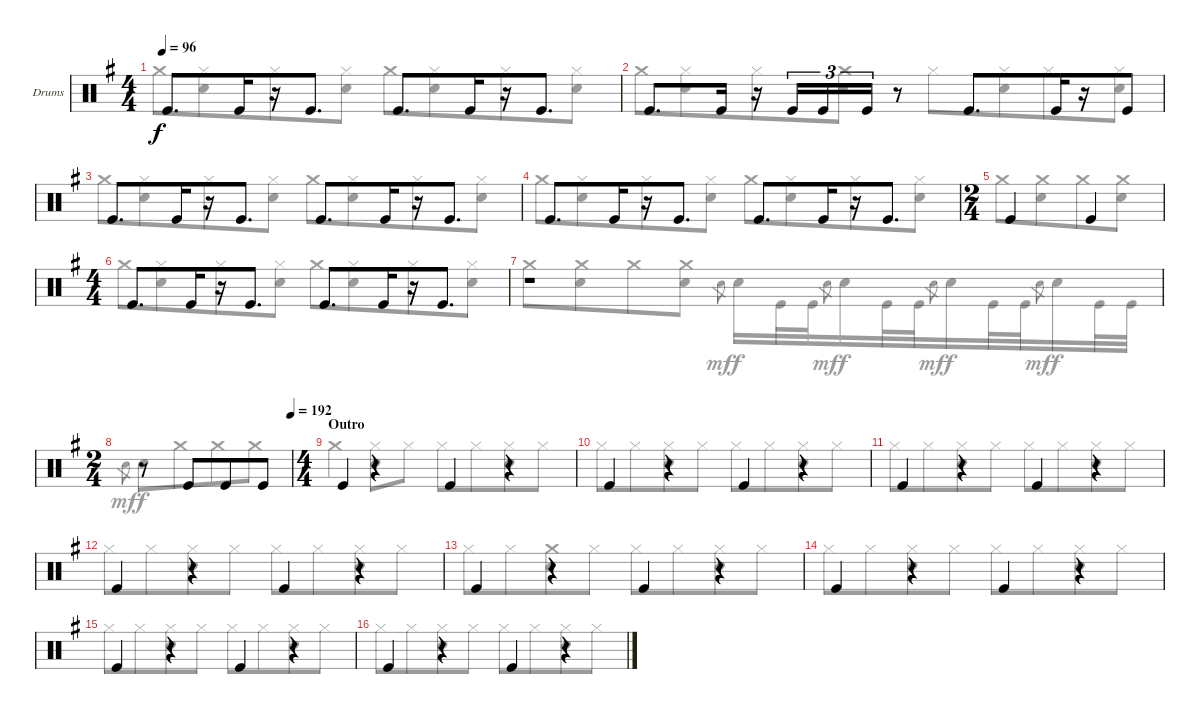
\bracketExtendMode groupsimilarinstruments
\firstSystemTrackNameOrientation horizontal
\otherSystemsTrackNameOrientation horizontal
\track ("Drumkit" "Drums") {instrument percussion}
\staff {score}
\articulation defaults
\voice
\ts (4 4)
\beaming (8 4 4)
\tempo 96
\clef neutral
\scale
1.07314
\ks g "Kick (hit)".8{d dy f} "Kick (hit)".16
r.16 "Kick (hit)".8{d} "Kick (hit)".8{d} "Kick (hit)".16 r.16 "Kick (hit)".8{d} |
\scale
0.92686 "Kick (hit)".8{d} "Kick (hit)".16 r.16 "Kick (hit)".16{tu (3 2)} "Kick (hit)".16{tu (3 2)} "Kick (hit)".16{tu (3 2)} r.8 "Kick (hit)".8{d} "Kick (hit)".16 r.16 "Kick (hit)".8 |
\scale
1.04288 "Kick (hit)".8{d} "Kick (hit)".16 r.16 "Kick (hit)".8{d} "Kick (hit)".8{d} "Kick (hit)".16 r.16 "Kick (hit)".8{d} |
\scale
0.957125 "Kick (hit)".8{d} "Kick (hit)".16 r.16 "Kick (hit)".8{d} "Kick (hit)".8{d} "Kick (hit)".16 r.16 "Kick (hit)".8{d} |
\ts (2 4)
\beaming (8 4 4)
\scale
1.07314 "Kick (hit)".4 "Kick (hit)".4 |
\ts (4 4)
\beaming (8 4 4)
\scale
0.92686 "Kick (hit)".8{d} "Kick (hit)".16 r.16 "Kick (hit)".8{d} "Kick (hit)".8{d} "Kick (hit)".16 r.16 "Kick (hit)".8{d} |
\scale
1.04288 r.1 |
\ts (2 4)
\beaming (8 4 4)
\tempo (192 1)
\scale
0.957125 r.8 "Kick (hit)".8 "Kick (hit)".8 "Kick (hit)".8 |
\ts (4 4)
\beaming (8 4 4)
\section ("" "Outro")
\scale
1.07314 "Kick (hit)".4 r.4 "Kick (hit)".4 r.4 |
\scale
0.92686 "Kick (hit)".4 r.4 "Kick (hit)".4 r.4 |
\scale
1.04288 "Kick (hit)".4 r.4 "Kick (hit)".4 r.4 |
\scale
0.957125 "Kick (hit)".4 r.4 "Kick (hit)".4 r.4 |
\scale
1.04288 "Kick (hit)".4 r.4 "Kick (hit)".4 r.4 |
\scale
0.957125 "Kick (hit)".4 r.4 "Kick (hit)".4 r.4 |
\scale
1.04288 "Kick (hit)".4 r.4 "Kick (hit)".4 r.4 |
\scale
0.957125 "Kick (hit)".4 r.4 "Kick (hit)".4 r.4
\voice
\clef neutral
\ottava regular
\simile none
\scale
1.07314
\ks g "Crash medium (hit)".8{dy f}
("Hi-Hat (closed)" "Snare (hit) 2").8 "Hi-Hat (closed)".8 ("Hi-Hat (closed)" "Snare (hit) 2").8 "Crash medium (hit)".8 ("Hi-Hat (closed)" "Snare (hit) 2").8 "Hi-Hat (closed)".8 ("Hi-Hat (closed)" "Snare (hit) 2").8 |
\scale
0.92686 "Crash medium (hit)".8 ("Hi-Hat (closed)" "Snare (hit) 2").8 "Hi-Hat (closed)".8 ("Crash medium (hit)" "Snare (hit) 2").8 "Hi-Hat (closed)".8 ("Hi-Hat (closed)" "Snare (hit) 2").8 "Hi-Hat (closed)".8 ("Hi-Hat (closed)" "Snare (hit) 2").8 |
\scale
1.04288 "Crash medium (hit)".8 ("Hi-Hat (closed)" "Snare (hit) 2").8 "Hi-Hat (closed)".8 ("Hi-Hat (closed)" "Snare (hit) 2").8 "Crash medium (hit)".8 ("Hi-Hat (closed)" "Snare (hit) 2").8 "Hi-Hat (closed)".8 ("Hi-Hat (closed)" "Snare (hit) 2").8 |
\scale
0.957125 "Crash medium (hit)".8 ("Hi-Hat (closed)" "Snare (hit) 2").8 "Hi-Hat (closed)".8 ("Hi-Hat (closed)" "Snare (hit) 2").8 "Crash medium (hit)".8 ("Hi-Hat (closed)" "Snare (hit) 2").8 "Hi-Hat (closed)".8 ("Hi-Hat (closed)" "Snare (hit) 2").8 |
\scale
1.07314 "Crash medium (hit)".8 ("Crash medium (hit)" "Snare (hit) 2").8 "Crash medium (hit)".8 ("Crash medium (hit)" "Snare (hit) 2").8 |
\scale
0.92686 "Crash medium (hit)".8 ("Hi-Hat (closed)" "Snare (hit) 2").8 "Hi-Hat (closed)".8 ("Hi-Hat (closed)" "Snare (hit) 2").8 "Crash medium (hit)".8 ("Hi-Hat (closed)" "Snare (hit) 2").8 "Hi-Hat (closed)".8 ("Hi-Hat (closed)" "Snare (hit) 2").8 |
\scale
1.04288 "Crash medium (hit)".8 ("Crash medium (hit)" "Snare (hit) 2").8 "Crash medium (hit)".8 ("Crash medium (hit)" "Snare (hit) 2").8 "Snare (hit) 2".8{gr dy mf} "Snare (hit) 2".16{dy f} "Kick (hit)".32 "Kick (hit)".32 "Snare (hit) 2".8{gr dy mf} "Snare (hit) 2".16{dy f} "Kick (hit)".32 "Kick (hit)".32 "Snare (hit) 2".8{gr dy mf} "Snare (hit) 2".16{dy f} "Kick (hit)".32 "Kick (hit)".32 "Snare (hit) 2".8{gr dy mf} "Snare (hit) 2".16{dy f} "Kick (hit)".32 "Kick (hit)".32 |
\scale
0.957125 "Snare (hit) 2".8{gr dy mf} "Snare (hit) 2".8{dy f} "Crash medium (hit)".8 "Crash medium (hit)".8 "Crash medium (hit)".8 |
\scale
1.07314 "Crash medium (hit)".4 ("Hi-Hat (closed)" "Snare (hit) 2").8 "Hi-Hat (closed)".8 "Hi-Hat (closed)".8 "Hi-Hat (closed)".8 ("Hi-Hat (closed)" "Snare (hit) 2").8 "Hi-Hat (closed)".8 |
\scale
0.92686 "Hi-Hat (closed)".8 "Hi-Hat (closed)".8 ("Hi-Hat (closed)" "Snare (hit) 2").8 "Hi-Hat (closed)".8 "Hi-Hat (closed)".8 "Hi-Hat (closed)".8 ("Hi-Hat (closed)" "Snare (hit) 2").8 "Hi-Hat (closed)".8 |
\scale
1.04288 "Hi-Hat (closed)".8 "Hi-Hat (closed)".8 ("Hi-Hat (closed)" "Snare (hit) 2").8 "Hi-Hat (closed)".8 "Hi-Hat (closed)".8 "Hi-Hat (closed)".8 ("Hi-Hat (closed)" "Snare (hit) 2").8 "Hi-Hat (closed)".8 |
\scale
0.957125 "Hi-Hat (closed)".8 "Hi-Hat (closed)".8 ("Hi-Hat (closed)" "Snare (hit) 2").8 "Hi-Hat (closed)".8 "Hi-Hat (closed)".8 "Hi-Hat (closed)".8 ("Hi-Hat (closed)" "Snare (hit) 2").8 "Hi-Hat (closed)".8 |
\scale
1.04288 "Hi-Hat (closed)".8 "Hi-Hat (closed)".8 ("Crash medium (hit)" "Snare (hit) 2").8 "Hi-Hat (closed)".8 "Hi-Hat (closed)".8 "Hi-Hat (closed)".8 ("Hi-Hat (closed)" "Snare (hit) 2").8 "Hi-Hat (closed)".8 |
\scale
0.957125 "Hi-Hat (closed)".8 "Hi-Hat (closed)".8 ("Hi-Hat (closed)" "Snare (hit) 2").8 "Hi-Hat (closed)".8 "Hi-Hat (closed)".8 "Hi-Hat (closed)".8 ("Hi-Hat (closed)" "Snare (hit) 2").8 "Hi-Hat (closed)".8 |
\scale
1.04288 "Hi-Hat (closed)".8 "Hi-Hat (closed)".8 ("Hi-Hat (closed)" "Snare (hit) 2").8 "Hi-Hat (closed)".8 "Hi-Hat (closed)".8 "Hi-Hat (closed)".8 ("Hi-Hat (closed)" "Snare (hit) 2").8 "Hi-Hat (closed)".8 |
\scale
0.957125 "Hi-Hat (closed)".8 "Hi-Hat (closed)".8 ("Hi-Hat (closed)" "Snare (hit) 2").8 "Hi-Hat (closed)".8 "Hi-Hat (closed)".8 "Hi-Hat (closed)".8 ("Hi-Hat (closed)" "Snare (hit) 2").8 "Hi-Hat (closed)".8
